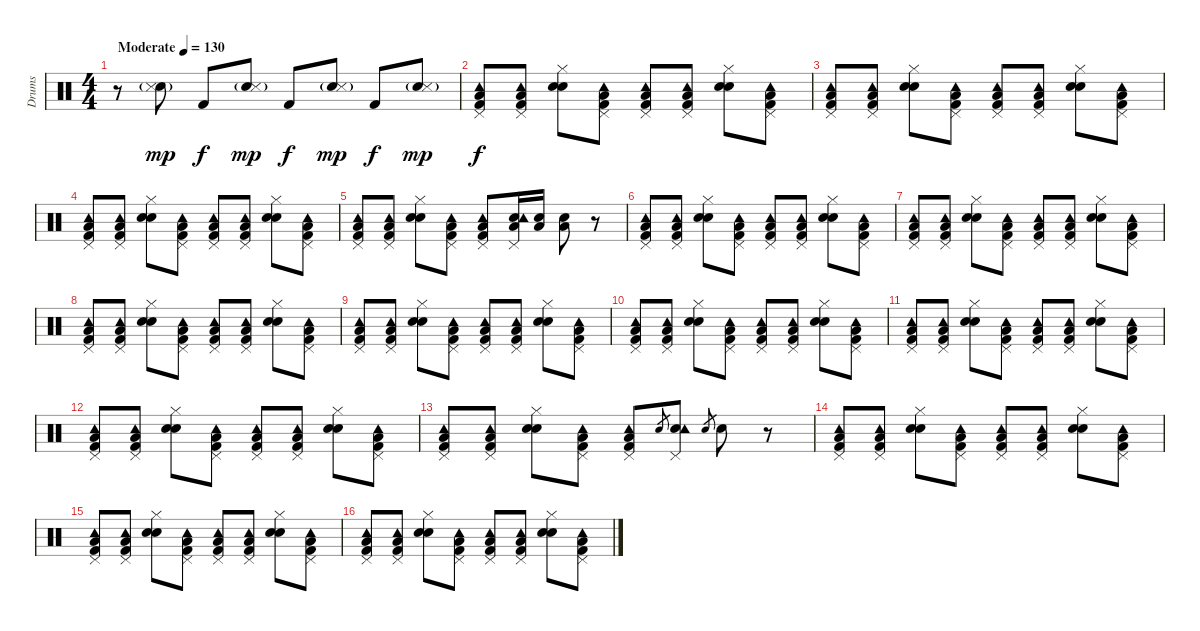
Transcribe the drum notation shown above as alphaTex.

\track ("Drums" "Drums") {instrument percussion}
\staff {score}
\articulation defaults
\ts (4 4)
\tempo (130 "Moderate")
\clef neutral
\ks c
r.8{dy mp volume 7} ("Electric Snare (hit)"{g} "Snare (side stick) 3").8 "Kick (hit) 2".8{dy f} ("Electric Snare (hit)"{g} "Snare (side stick) 3").8{dy mp} "Kick (hit) 2".8{dy f} ("Electric Snare (hit)"{g} "Snare (side stick) 3").8{dy mp} "Kick (hit) 2".8{dy f} ("Electric Snare (hit)"{g} "Snare (side stick) 3").8{dy mp} |
("Kick (hit) 2" "Low Floor Tom (hit)" "Pedal Hi-Hat (hit)" "Tambourine (hit)").8{dy f volume 13} ("Kick (hit) 2" "Low Floor Tom (hit)" "Pedal Hi-Hat (hit)" "Tambourine (hit)").8 ("Electric Snare (hit)" "Hand Clap (hit)" "Hi-Hat (closed)").8 ("Kick (hit) 2" "Low Floor Tom (hit)" "Pedal Hi-Hat (hit)" "Tambourine (hit)").8 ("Kick (hit) 2" "Low Floor Tom (hit)" "Pedal Hi-Hat (hit)" "Tambourine (hit)").8 ("Kick (hit) 2" "Low Floor Tom (hit)" "Pedal Hi-Hat (hit)" "Tambourine (hit)").8 ("Electric Snare (hit)" "Hand Clap (hit)" "Hi-Hat (closed)").8 ("Kick (hit) 2" "Low Floor Tom (hit)" "Pedal Hi-Hat (hit)" "Tambourine (hit)").8 |
("Kick (hit) 2" "Low Floor Tom (hit)" "Pedal Hi-Hat (hit)" "Tambourine (hit)").8{volume 13} ("Kick (hit) 2" "Low Floor Tom (hit)" "Pedal Hi-Hat (hit)" "Tambourine (hit)").8 ("Electric Snare (hit)" "Hand Clap (hit)" "Hi-Hat (closed)").8 ("Kick (hit) 2" "Low Floor Tom (hit)" "Pedal Hi-Hat (hit)" "Tambourine (hit)").8 ("Kick (hit) 2" "Low Floor Tom (hit)" "Pedal Hi-Hat (hit)" "Tambourine (hit)").8 ("Kick (hit) 2" "Low Floor Tom (hit)" "Pedal Hi-Hat (hit)" "Tambourine (hit)").8 ("Electric Snare (hit)" "Hand Clap (hit)" "Hi-Hat (closed)").8 ("Kick (hit) 2" "Low Floor Tom (hit)" "Pedal Hi-Hat (hit)" "Tambourine (hit)").8 |
("Kick (hit) 2" "Low Floor Tom (hit)" "Pedal Hi-Hat (hit)" "Tambourine (hit)").8{volume 13} ("Kick (hit) 2" "Low Floor Tom (hit)" "Pedal Hi-Hat (hit)" "Tambourine (hit)").8 ("Electric Snare (hit)" "Hand Clap (hit)" "Hi-Hat (closed)").8 ("Kick (hit) 2" "Low Floor Tom (hit)" "Pedal Hi-Hat (hit)" "Tambourine (hit)").8 ("Kick (hit) 2" "Low Floor Tom (hit)" "Pedal Hi-Hat (hit)" "Tambourine (hit)").8 ("Kick (hit) 2" "Low Floor Tom (hit)" "Pedal Hi-Hat (hit)" "Tambourine (hit)").8 ("Electric Snare (hit)" "Hand Clap (hit)" "Hi-Hat (closed)").8 ("Kick (hit) 2" "Low Floor Tom (hit)" "Pedal Hi-Hat (hit)" "Tambourine (hit)").8 |
("Kick (hit) 2" "Low Floor Tom (hit)" "Pedal Hi-Hat (hit)" "Tambourine (hit)").8{volume 13} ("Kick (hit) 2" "Low Floor Tom (hit)" "Pedal Hi-Hat (hit)" "Tambourine (hit)").8 ("Electric Snare (hit)" "Hand Clap (hit)" "Hi-Hat (closed)").8 ("Kick (hit) 2" "Low Floor Tom (hit)" "Pedal Hi-Hat (hit)" "Tambourine (hit)").8 ("Kick (hit) 2" "Low Floor Tom (hit)" "Pedal Hi-Hat (hit)" "Tambourine (hit)").8 ("Electric Snare (hit)" "Low Floor Tom (hit)" "Pedal Hi-Hat (hit)" "Tambourine (hit)").16 ("Electric Snare (hit)" "Low Floor Tom (hit)").16 ("Electric Snare (hit)" "Low Floor Tom (hit)").8 r.8 |
("Kick (hit) 2" "Low Floor Tom (hit)" "Pedal Hi-Hat (hit)" "Tambourine (hit)").8{volume 13} ("Kick (hit) 2" "Low Floor Tom (hit)" "Pedal Hi-Hat (hit)" "Tambourine (hit)").8 ("Electric Snare (hit)" "Hand Clap (hit)" "Hi-Hat (closed)").8 ("Kick (hit) 2" "Low Floor Tom (hit)" "Pedal Hi-Hat (hit)" "Tambourine (hit)").8 ("Kick (hit) 2" "Low Floor Tom (hit)" "Pedal Hi-Hat (hit)" "Tambourine (hit)").8 ("Kick (hit) 2" "Low Floor Tom (hit)" "Pedal Hi-Hat (hit)" "Tambourine (hit)").8 ("Electric Snare (hit)" "Hand Clap (hit)" "Hi-Hat (closed)").8 ("Kick (hit) 2" "Low Floor Tom (hit)" "Pedal Hi-Hat (hit)" "Tambourine (hit)").8 |
("Kick (hit) 2" "Low Floor Tom (hit)" "Pedal Hi-Hat (hit)" "Tambourine (hit)").8{volume 13} ("Kick (hit) 2" "Low Floor Tom (hit)" "Pedal Hi-Hat (hit)" "Tambourine (hit)").8 ("Electric Snare (hit)" "Hand Clap (hit)" "Hi-Hat (closed)").8 ("Kick (hit) 2" "Low Floor Tom (hit)" "Pedal Hi-Hat (hit)" "Tambourine (hit)").8 ("Kick (hit) 2" "Low Floor Tom (hit)" "Pedal Hi-Hat (hit)" "Tambourine (hit)").8 ("Kick (hit) 2" "Low Floor Tom (hit)" "Pedal Hi-Hat (hit)" "Tambourine (hit)").8 ("Electric Snare (hit)" "Hand Clap (hit)" "Hi-Hat (closed)").8 ("Kick (hit) 2" "Low Floor Tom (hit)" "Pedal Hi-Hat (hit)" "Tambourine (hit)").8 |
("Kick (hit) 2" "Low Floor Tom (hit)" "Pedal Hi-Hat (hit)" "Tambourine (hit)").8{volume 13} ("Kick (hit) 2" "Low Floor Tom (hit)" "Pedal Hi-Hat (hit)" "Tambourine (hit)").8 ("Electric Snare (hit)" "Hand Clap (hit)" "Hi-Hat (closed)").8 ("Kick (hit) 2" "Low Floor Tom (hit)" "Pedal Hi-Hat (hit)" "Tambourine (hit)").8 ("Kick (hit) 2" "Low Floor Tom (hit)" "Pedal Hi-Hat (hit)" "Tambourine (hit)").8 ("Kick (hit) 2" "Low Floor Tom (hit)" "Pedal Hi-Hat (hit)" "Tambourine (hit)").8 ("Electric Snare (hit)" "Hand Clap (hit)" "Hi-Hat (closed)").8 ("Kick (hit) 2" "Low Floor Tom (hit)" "Pedal Hi-Hat (hit)" "Tambourine (hit)").8 |
("Kick (hit) 2" "Low Floor Tom (hit)" "Pedal Hi-Hat (hit)" "Tambourine (hit)").8{volume 13} ("Kick (hit) 2" "Low Floor Tom (hit)" "Pedal Hi-Hat (hit)" "Tambourine (hit)").8 ("Electric Snare (hit)" "Hand Clap (hit)" "Hi-Hat (closed)").8 ("Kick (hit) 2" "Low Floor Tom (hit)" "Pedal Hi-Hat (hit)" "Tambourine (hit)").8 ("Kick (hit) 2" "Low Floor Tom (hit)" "Pedal Hi-Hat (hit)" "Tambourine (hit)").8 ("Kick (hit) 2" "Low Floor Tom (hit)" "Pedal Hi-Hat (hit)" "Tambourine (hit)").8 ("Electric Snare (hit)" "Hand Clap (hit)" "Hi-Hat (closed)").8 ("Kick (hit) 2" "Low Floor Tom (hit)" "Pedal Hi-Hat (hit)" "Tambourine (hit)").8 |
("Kick (hit) 2" "Low Floor Tom (hit)" "Pedal Hi-Hat (hit)" "Tambourine (hit)").8{volume 13} ("Kick (hit) 2" "Low Floor Tom (hit)" "Pedal Hi-Hat (hit)" "Tambourine (hit)").8 ("Electric Snare (hit)" "Hand Clap (hit)" "Hi-Hat (closed)").8 ("Kick (hit) 2" "Low Floor Tom (hit)" "Pedal Hi-Hat (hit)" "Tambourine (hit)").8 ("Kick (hit) 2" "Low Floor Tom (hit)" "Pedal Hi-Hat (hit)" "Tambourine (hit)").8 ("Kick (hit) 2" "Low Floor Tom (hit)" "Pedal Hi-Hat (hit)" "Tambourine (hit)").8 ("Electric Snare (hit)" "Hand Clap (hit)" "Hi-Hat (closed)").8 ("Kick (hit) 2" "Low Floor Tom (hit)" "Pedal Hi-Hat (hit)" "Tambourine (hit)").8 |
("Kick (hit) 2" "Low Floor Tom (hit)" "Pedal Hi-Hat (hit)" "Tambourine (hit)").8{volume 13} ("Kick (hit) 2" "Low Floor Tom (hit)" "Pedal Hi-Hat (hit)" "Tambourine (hit)").8 ("Electric Snare (hit)" "Hand Clap (hit)" "Hi-Hat (closed)").8 ("Kick (hit) 2" "Low Floor Tom (hit)" "Pedal Hi-Hat (hit)" "Tambourine (hit)").8 ("Kick (hit) 2" "Low Floor Tom (hit)" "Pedal Hi-Hat (hit)" "Tambourine (hit)").8 ("Kick (hit) 2" "Low Floor Tom (hit)" "Pedal Hi-Hat (hit)" "Tambourine (hit)").8 ("Electric Snare (hit)" "Hand Clap (hit)" "Hi-Hat (closed)").8 ("Kick (hit) 2" "Low Floor Tom (hit)" "Pedal Hi-Hat (hit)" "Tambourine (hit)").8 |
("Kick (hit) 2" "Low Floor Tom (hit)" "Pedal Hi-Hat (hit)" "Tambourine (hit)").8{volume 13} ("Kick (hit) 2" "Low Floor Tom (hit)" "Pedal Hi-Hat (hit)" "Tambourine (hit)").8 ("Electric Snare (hit)" "Hand Clap (hit)" "Hi-Hat (closed)").8 ("Kick (hit) 2" "Low Floor Tom (hit)" "Pedal Hi-Hat (hit)" "Tambourine (hit)").8 ("Kick (hit) 2" "Low Floor Tom (hit)" "Pedal Hi-Hat (hit)" "Tambourine (hit)").8 ("Kick (hit) 2" "Low Floor Tom (hit)" "Pedal Hi-Hat (hit)" "Tambourine (hit)").8 ("Electric Snare (hit)" "Hand Clap (hit)" "Hi-Hat (closed)").8 ("Kick (hit) 2" "Low Floor Tom (hit)" "Pedal Hi-Hat (hit)" "Tambourine (hit)").8 |
("Kick (hit) 2" "Low Floor Tom (hit)" "Pedal Hi-Hat (hit)" "Tambourine (hit)").8{volume 13} ("Kick (hit) 2" "Low Floor Tom (hit)" "Pedal Hi-Hat (hit)" "Tambourine (hit)").8 ("Electric Snare (hit)" "Hand Clap (hit)" "Hi-Hat (closed)").8 ("Kick (hit) 2" "Low Floor Tom (hit)" "Pedal Hi-Hat (hit)" "Tambourine (hit)").8 ("Kick (hit) 2" "Low Floor Tom (hit)" "Pedal Hi-Hat (hit)" "Tambourine (hit)").8 "Electric Snare (hit)".8{gr} ("Electric Snare (hit)" "Pedal Hi-Hat (hit)" "Tambourine (hit)").8 "Electric Snare (hit)".8{gr} "Electric Snare (hit)".8 r.8 |
("Kick (hit) 2" "Low Floor Tom (hit)" "Pedal Hi-Hat (hit)" "Tambourine (hit)").8{volume 13} ("Kick (hit) 2" "Low Floor Tom (hit)" "Pedal Hi-Hat (hit)" "Tambourine (hit)").8 ("Electric Snare (hit)" "Hand Clap (hit)" "Hi-Hat (closed)").8 ("Kick (hit) 2" "Low Floor Tom (hit)" "Pedal Hi-Hat (hit)" "Tambourine (hit)").8 ("Kick (hit) 2" "Low Floor Tom (hit)" "Pedal Hi-Hat (hit)" "Tambourine (hit)").8 ("Kick (hit) 2" "Low Floor Tom (hit)" "Pedal Hi-Hat (hit)" "Tambourine (hit)").8 ("Electric Snare (hit)" "Hand Clap (hit)" "Hi-Hat (closed)").8 ("Kick (hit) 2" "Low Floor Tom (hit)" "Pedal Hi-Hat (hit)" "Tambourine (hit)").8 |
("Kick (hit) 2" "Low Floor Tom (hit)" "Pedal Hi-Hat (hit)" "Tambourine (hit)").8{volume 13} ("Kick (hit) 2" "Low Floor Tom (hit)" "Pedal Hi-Hat (hit)" "Tambourine (hit)").8 ("Electric Snare (hit)" "Hand Clap (hit)" "Hi-Hat (closed)").8 ("Kick (hit) 2" "Low Floor Tom (hit)" "Pedal Hi-Hat (hit)" "Tambourine (hit)").8 ("Kick (hit) 2" "Low Floor Tom (hit)" "Pedal Hi-Hat (hit)" "Tambourine (hit)").8 ("Kick (hit) 2" "Low Floor Tom (hit)" "Pedal Hi-Hat (hit)" "Tambourine (hit)").8 ("Electric Snare (hit)" "Hand Clap (hit)" "Hi-Hat (closed)").8 ("Kick (hit) 2" "Low Floor Tom (hit)" "Pedal Hi-Hat (hit)" "Tambourine (hit)").8 |
("Kick (hit) 2" "Low Floor Tom (hit)" "Pedal Hi-Hat (hit)" "Tambourine (hit)").8{volume 13} ("Kick (hit) 2" "Low Floor Tom (hit)" "Pedal Hi-Hat (hit)" "Tambourine (hit)").8 ("Electric Snare (hit)" "Hand Clap (hit)" "Hi-Hat (closed)").8 ("Kick (hit) 2" "Low Floor Tom (hit)" "Pedal Hi-Hat (hit)" "Tambourine (hit)").8 ("Kick (hit) 2" "Low Floor Tom (hit)" "Pedal Hi-Hat (hit)" "Tambourine (hit)").8 ("Kick (hit) 2" "Low Floor Tom (hit)" "Pedal Hi-Hat (hit)" "Tambourine (hit)").8 ("Electric Snare (hit)" "Hand Clap (hit)" "Hi-Hat (closed)").8 ("Kick (hit) 2" "Low Floor Tom (hit)" "Pedal Hi-Hat (hit)" "Tambourine (hit)").8
